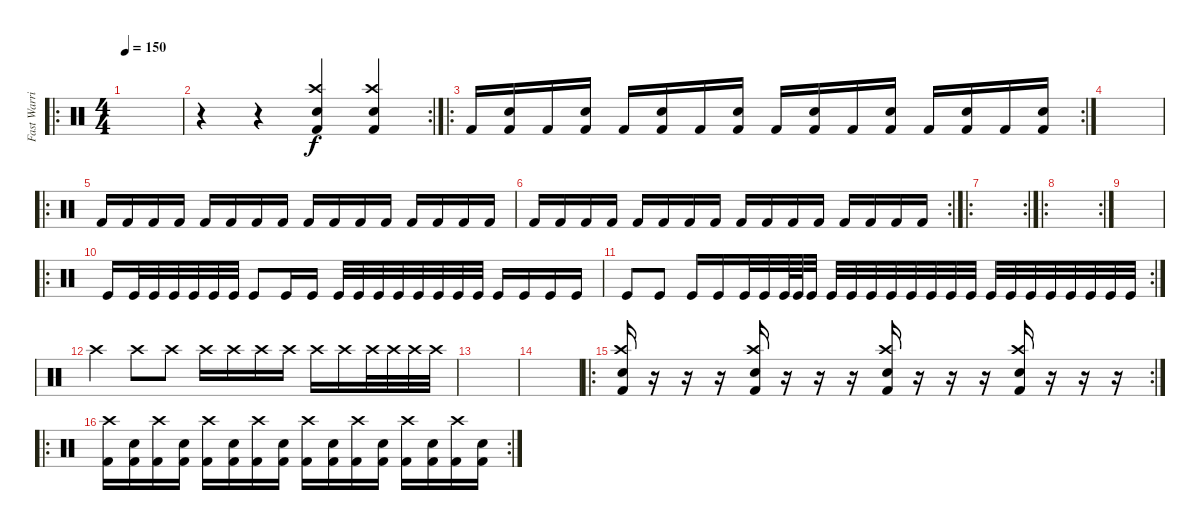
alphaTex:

\track ("Fast Warrior" "Fast Warri") {instrument percussion}
\staff {score}
\articulation defaults
\ro
\ts (4 4)
\tempo 150
\tempo 200
\tempo 150
\clef neutral
\ks c
|
\rc 2
r.4 r.4 ("Kick (hit) 2" "Crash high (hit)" "Electric Snare (hit)").4 ("Kick (hit) 2" "Crash high (hit)" "Electric Snare (hit)").4 |
\ro
\rc 2 "Kick (hit) 2".16
("Electric Snare (hit)" "Kick (hit) 2").16 "Kick (hit) 2".16 ("Electric Snare (hit)" "Kick (hit) 2").16 "Kick (hit) 2".16 ("Electric Snare (hit)" "Kick (hit) 2").16 "Kick (hit) 2".16 ("Electric Snare (hit)" "Kick (hit) 2").16 "Kick (hit) 2".16 ("Electric Snare (hit)" "Kick (hit) 2").16 "Kick (hit) 2".16 ("Electric Snare (hit)" "Kick (hit) 2").16 "Kick (hit) 2".16 ("Electric Snare (hit)" "Kick (hit) 2").16 "Kick (hit) 2".16 ("Electric Snare (hit)" "Kick (hit) 2").16 |
|
\ro "Kick (hit) 2".16 "Kick (hit) 2".16 "Kick (hit) 2".16 "Kick (hit) 2".16 "Kick (hit) 2".16 "Kick (hit) 2".16 "Kick (hit) 2".16 "Kick (hit) 2".16 "Kick (hit) 2".16 "Kick (hit) 2".16 "Kick (hit) 2".16 "Kick (hit) 2".16 "Kick (hit) 2".16 "Kick (hit) 2".16 "Kick (hit) 2".16 "Kick (hit) 2".16
|
\rc 2 "Kick (hit) 2".16 "Kick (hit) 2".16 "Kick (hit) 2".16 "Kick (hit) 2".16 "Kick (hit) 2".16 "Kick (hit) 2".16 "Kick (hit) 2".16 "Kick (hit) 2".16 "Kick (hit) 2".16 "Kick (hit) 2".16 "Kick (hit) 2".16 "Kick (hit) 2".16 "Kick (hit) 2".16 "Kick (hit) 2".16 "Kick (hit) 2".16 "Kick (hit) 2".16
|
\ro
\rc 2
|
\ro
\rc 2
|
|
\ro "Kick (hit)".16 "Kick (hit)".32 "Kick (hit)".32 "Kick (hit)".32 "Kick (hit)".32 "Kick (hit)".32 "Kick (hit)".32 "Kick (hit)".8 "Kick (hit)".16 "Kick (hit)".16 "Kick (hit)".32 "Kick (hit)".32 "Kick (hit)".32 "Kick (hit)".32 "Kick (hit)".32 "Kick (hit)".32 "Kick (hit)".32 "Kick (hit)".32 "Kick (hit)".16 "Kick (hit)".16 "Kick (hit)".16 "Kick (hit)".16
|
\rc 2 "Kick (hit)".8 "Kick (hit)".8 "Kick (hit)".16 "Kick (hit)".16 "Kick (hit)".32 "Kick (hit)".32 "Kick (hit)".64 "Kick (hit)".64 "Kick (hit)".32 "Kick (hit)".32 "Kick (hit)".32 "Kick (hit)".32 "Kick (hit)".32 "Kick (hit)".32 "Kick (hit)".32 "Kick (hit)".32 "Kick (hit)".32 "Kick (hit)".32 "Kick (hit)".32 "Kick (hit)".32 "Kick (hit)".32 "Kick (hit)".32 "Kick (hit)".32 "Kick (hit)".32 "Kick (hit)".32
|
"Crash high (hit)".4 "Crash high (hit)".8 "Crash high (hit)".8 "Crash high (hit)".16 "Crash high (hit)".16 "Crash high (hit)".16 "Crash high (hit)".16 "Crash high (hit)".16 "Crash high (hit)".16 "Crash high (hit)".32 "Crash high (hit)".32 "Crash high (hit)".32 "Crash high (hit)".32 |
|
|
\ro
\rc 2
("Electric Snare (hit)" "Kick (hit) 2" "Crash high (hit)").16 r.16 r.16 r.16 ("Electric Snare (hit)" "Kick (hit) 2" "Crash high (hit)").16 r.16 r.16 r.16 ("Electric Snare (hit)" "Kick (hit) 2" "Crash high (hit)").16 r.16 r.16 r.16 ("Electric Snare (hit)" "Kick (hit) 2" "Crash high (hit)").16 r.16 r.16 r.16 |
\ro
\rc 2
("Crash high (hit)" "Kick (hit) 2").16 ("Electric Snare (hit)" "Kick (hit) 2").16 ("Crash high (hit)" "Kick (hit) 2").16 ("Electric Snare (hit)" "Kick (hit) 2").16 ("Crash high (hit)" "Kick (hit) 2").16 ("Electric Snare (hit)" "Kick (hit) 2").16 ("Crash high (hit)" "Kick (hit) 2").16 ("Electric Snare (hit)" "Kick (hit) 2").16 ("Crash high (hit)" "Kick (hit) 2").16 ("Electric Snare (hit)" "Kick (hit) 2").16 ("Crash high (hit)" "Kick (hit) 2").16 ("Electric Snare (hit)" "Kick (hit) 2").16 ("Crash high (hit)" "Kick (hit) 2").16 ("Electric Snare (hit)" "Kick (hit) 2").16 ("Crash high (hit)" "Kick (hit) 2").16 ("Electric Snare (hit)" "Kick (hit) 2").16
